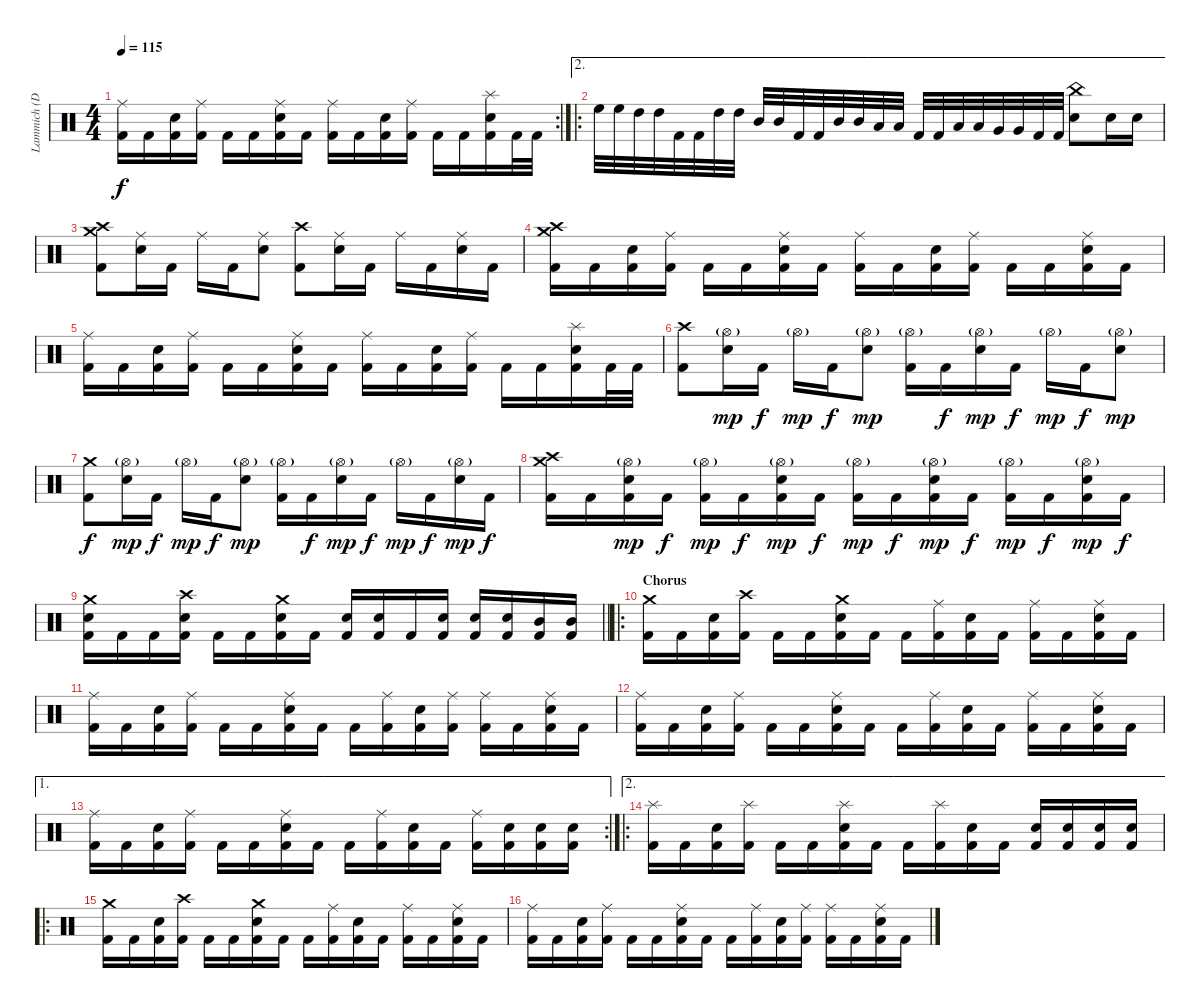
\track ("Lammich (Drums)" "Lammich (D") {instrument percussion}
\staff {score}
\articulation defaults
\rc 2
\ts (4 4)
\tempo 115
\clef neutral
\ks c
("Ride (middle)" "Kick (hit) 2").16{dy f} "Kick (hit) 2".16 ("Electric Snare (hit)" "Kick (hit) 2").16 ("Ride (middle)" "Kick (hit) 2").16 "Kick (hit) 2".16 "Kick (hit) 2".16 ("Ride (middle)" "Electric Snare (hit)" "Kick (hit) 2").16 "Kick (hit) 2".16 ("Ride (middle)" "Kick (hit) 2").16 "Kick (hit) 2".16 ("Electric Snare (hit)" "Kick (hit) 2").16 ("Ride (middle)" "Kick (hit) 2").16 "Kick (hit) 2".16 "Kick (hit) 2".16 ("Splash (hit)" "Electric Snare (hit)" "Kick (hit) 2").16 "Kick (hit) 2".32 "Kick (hit) 2".32 |
\ae 2
\ro "High Floor Tom (hit)".32 "High Floor Tom (hit)".32 "High Tom (hit)".32 "High Tom (hit)".32 "Kick (hit) 2".32 "Kick (hit) 2".32 "High Tom (hit)".32 "High Tom (hit)".32 "Mid Tom (hit)".32 "Mid Tom (hit)".32 "Kick (hit) 2".32 "Kick (hit) 2".32 "Mid Tom (hit)".32 "Mid Tom (hit)".32 "Low Tom (hit)".32 "Low Tom (hit)".32 "Kick (hit) 2".32 "Kick (hit) 2".32 "Low Tom (hit)".32 "Low Tom (hit)".32 "Very Low Tom (hit)".32 "Very Low Tom (hit)".32 "Kick (hit) 2".32 "Kick (hit) 2".32
("China (hit)" "Electric Snare (hit)").8 "Electric Snare (hit)".16 "Electric Snare (hit)".16 |
("Crash medium (hit)" "Crash high (hit)" "Kick (hit) 2").8 ("Ride (middle)" "Electric Snare (hit)").16 "Kick (hit) 2".16 "Ride (middle)".16 "Kick (hit) 2".16 ("Ride (middle)" "Electric Snare (hit)").8 ("Crash high (hit)" "Kick (hit) 2").8 ("Ride (middle)" "Electric Snare (hit)").16 "Kick (hit) 2".16 "Ride (middle)".16 "Kick (hit) 2".16 ("Ride (middle)" "Electric Snare (hit)").16 "Kick (hit) 2".16 |
("Crash medium (hit)" "Crash high (hit)" "Kick (hit) 2").16 "Kick (hit) 2".16 ("Electric Snare (hit)" "Kick (hit) 2").16 ("Ride (middle)" "Kick (hit) 2").16 "Kick (hit) 2".16 "Kick (hit) 2".16 ("Ride (middle)" "Electric Snare (hit)" "Kick (hit) 2").16 "Kick (hit) 2".16 ("Ride (middle)" "Kick (hit) 2").16 "Kick (hit) 2".16 ("Electric Snare (hit)" "Kick (hit) 2").16 ("Ride (middle)" "Kick (hit) 2").16 "Kick (hit) 2".16 "Kick (hit) 2".16 ("Ride (middle)" "Electric Snare (hit)" "Kick (hit) 2").16 "Kick (hit) 2".16 |
("Ride (middle)" "Kick (hit) 2").16 "Kick (hit) 2".16 ("Electric Snare (hit)" "Kick (hit) 2").16 ("Ride (middle)" "Kick (hit) 2").16 "Kick (hit) 2".16 "Kick (hit) 2".16 ("Ride (middle)" "Electric Snare (hit)" "Kick (hit) 2").16 "Kick (hit) 2".16 ("Ride (middle)" "Kick (hit) 2").16 "Kick (hit) 2".16 ("Electric Snare (hit)" "Kick (hit) 2").16 ("Ride (middle)" "Kick (hit) 2").16 "Kick (hit) 2".16 "Kick (hit) 2".16 ("Splash (hit)" "Electric Snare (hit)" "Kick (hit) 2").16 "Kick (hit) 2".32 "Kick (hit) 2".32 |
("Crash high (hit)" "Kick (hit) 2").8 ("Hi-Hat (open)"{g} "Electric Snare (hit)").16{dy mp} "Kick (hit) 2".16{dy f} "Hi-Hat (open)"{g}.16{dy mp} "Kick (hit) 2".16{dy f} ("Hi-Hat (open)"{g} "Electric Snare (hit)").8{dy mp} ("Hi-Hat (open)"{g} "Kick (hit) 2").16 "Kick (hit) 2".16{dy f} ("Hi-Hat (open)"{g} "Electric Snare (hit)").16{dy mp} "Kick (hit) 2".16{dy f} "Hi-Hat (open)"{g}.16{dy mp} "Kick (hit) 2".16{dy f} ("Hi-Hat (open)"{g} "Electric Snare (hit)").8{dy mp} |
("Crash medium (hit)" "Kick (hit) 2").8{dy f} ("Hi-Hat (open)"{g} "Electric Snare (hit)").16{dy mp} "Kick (hit) 2".16{dy f} "Hi-Hat (open)"{g}.16{dy mp} "Kick (hit) 2".16{dy f} ("Hi-Hat (open)"{g} "Electric Snare (hit)").8{dy mp} ("Hi-Hat (open)"{g} "Kick (hit) 2").16 "Kick (hit) 2".16{dy f} ("Hi-Hat (open)"{g} "Electric Snare (hit)").16{dy mp} "Kick (hit) 2".16{dy f} "Hi-Hat (open)"{g}.16{dy mp} "Kick (hit) 2".16{dy f} ("Hi-Hat (open)"{g} "Electric Snare (hit)").16{dy mp} "Kick (hit) 2".16{dy f} |
("Crash medium (hit)" "Crash high (hit)" "Kick (hit) 2").16 "Kick (hit) 2".16 ("Hi-Hat (open)"{g} "Electric Snare (hit)" "Kick (hit) 2").16{dy mp} "Kick (hit) 2".16{dy f} ("Hi-Hat (open)"{g} "Kick (hit) 2").16{dy mp} "Kick (hit) 2".16{dy f} ("Hi-Hat (open)"{g} "Electric Snare (hit)" "Kick (hit) 2").16{dy mp} "Kick (hit) 2".16{dy f} ("Hi-Hat (open)"{g} "Kick (hit) 2").16{dy mp} "Kick (hit) 2".16{dy f} ("Hi-Hat (open)"{g} "Electric Snare (hit)" "Kick (hit) 2").16{dy mp} "Kick (hit) 2".16{dy f} ("Hi-Hat (open)"{g} "Kick (hit) 2").16{dy mp} "Kick (hit) 2".16{dy f} ("Hi-Hat (open)"{g} "Electric Snare (hit)" "Kick (hit) 2").16{dy mp} "Kick (hit) 2".16{dy f} |
\barLineRight lightlight
("Crash medium (hit)" "Electric Snare (hit)" "Kick (hit) 2").16 "Kick (hit) 2".16 "Kick (hit) 2".16 ("Crash high (hit)" "Electric Snare (hit)" "Kick (hit) 2").16 "Kick (hit) 2".16 "Kick (hit) 2".16 ("Crash medium (hit)" "Electric Snare (hit)" "Kick (hit) 2").16 "Kick (hit) 2".16 ("Electric Snare (hit)" "Kick (hit) 2").16 ("Electric Snare (hit)" "Kick (hit) 2").16 "Kick (hit) 2".16 ("Electric Snare (hit)" "Kick (hit) 2").16 ("Electric Snare (hit)" "Kick (hit) 2").16 ("Electric Snare (hit)" "Kick (hit) 2").16 ("Mid Tom (hit)" "Kick (hit) 2").16 ("Mid Tom (hit)" "Kick (hit) 2").16 |
\ro
\section ("" "Chorus")
("Crash medium (hit)" "Kick (hit) 2").16 "Kick (hit) 2".16 ("Electric Snare (hit)" "Kick (hit) 2").16 ("Crash high (hit)" "Kick (hit) 2").16 "Kick (hit) 2".16 "Kick (hit) 2".16 ("Crash medium (hit)" "Electric Snare (hit)" "Kick (hit) 2").16 "Kick (hit) 2".16 "Kick (hit) 2".16 ("Ride (middle)" "Kick (hit) 2").16 ("Electric Snare (hit)" "Kick (hit) 2").16 "Kick (hit) 2".16 ("Ride (middle)" "Kick (hit) 2").16 "Kick (hit) 2".16 ("Ride (middle)" "Electric Snare (hit)" "Kick (hit) 2").16 "Kick (hit) 2".16 |
("Ride (middle)" "Kick (hit) 2").16 "Kick (hit) 2".16 ("Electric Snare (hit)" "Kick (hit) 2").16 ("Ride (middle)" "Kick (hit) 2").16 "Kick (hit) 2".16 "Kick (hit) 2".16 ("Ride (middle)" "Electric Snare (hit)" "Kick (hit) 2").16 "Kick (hit) 2".16 "Kick (hit) 2".16 ("Ride (middle)" "Kick (hit) 2").16 ("Electric Snare (hit)" "Kick (hit) 2").16 ("Ride (middle)" "Kick (hit) 2").16 ("Ride (middle)" "Kick (hit) 2").16 "Kick (hit) 2".16 ("Ride (middle)" "Electric Snare (hit)" "Kick (hit) 2").16 "Kick (hit) 2".16 |
("Ride (middle)" "Kick (hit) 2").16 "Kick (hit) 2".16 ("Electric Snare (hit)" "Kick (hit) 2").16 ("Ride (middle)" "Kick (hit) 2").16 "Kick (hit) 2".16 "Kick (hit) 2".16 ("Ride (middle)" "Electric Snare (hit)" "Kick (hit) 2").16 "Kick (hit) 2".16 "Kick (hit) 2".16 ("Ride (middle)" "Kick (hit) 2").16 ("Electric Snare (hit)" "Kick (hit) 2").16 "Kick (hit) 2".16 ("Ride (middle)" "Kick (hit) 2").16 "Kick (hit) 2".16 ("Ride (middle)" "Electric Snare (hit)" "Kick (hit) 2").16 "Kick (hit) 2".16 |
\ae 1
\rc 2
("Ride (middle)" "Kick (hit) 2").16 "Kick (hit) 2".16 ("Electric Snare (hit)" "Kick (hit) 2").16 ("Ride (middle)" "Kick (hit) 2").16 "Kick (hit) 2".16 "Kick (hit) 2".16 ("Ride (middle)" "Electric Snare (hit)" "Kick (hit) 2").16 "Kick (hit) 2".16 "Kick (hit) 2".16 ("Ride (middle)" "Kick (hit) 2").16 ("Electric Snare (hit)" "Kick (hit) 2").16 "Kick (hit) 2".16 ("Ride (middle)" "Kick (hit) 2").16 ("Electric Snare (hit)" "Kick (hit) 2").16 ("Electric Snare (hit)" "Kick (hit) 2").16 ("Electric Snare (hit)" "Kick (hit) 2").16 |
\ae 2
\ro
("Splash (hit)" "Kick (hit) 2").16 "Kick (hit) 2".16 ("Electric Snare (hit)" "Kick (hit) 2").16 ("Splash (hit)" "Kick (hit) 2").16 "Kick (hit) 2".16 "Kick (hit) 2".16 ("Splash (hit)" "Electric Snare (hit)" "Kick (hit) 2").16 "Kick (hit) 2".16 "Kick (hit) 2".16 ("Splash (hit)" "Kick (hit) 2").16 ("Electric Snare (hit)" "Kick (hit) 2").16 "Kick (hit) 2".16 ("Electric Snare (hit)" "Kick (hit) 2").16 ("Electric Snare (hit)" "Kick (hit) 2").16 ("Electric Snare (hit)" "Kick (hit) 2").16 ("Electric Snare (hit)" "Kick (hit) 2").16 |
\ro
("Crash medium (hit)" "Kick (hit) 2").16 "Kick (hit) 2".16 ("Electric Snare (hit)" "Kick (hit) 2").16 ("Crash high (hit)" "Kick (hit) 2").16 "Kick (hit) 2".16 "Kick (hit) 2".16 ("Crash medium (hit)" "Electric Snare (hit)" "Kick (hit) 2").16 "Kick (hit) 2".16 "Kick (hit) 2".16 ("Ride (middle)" "Kick (hit) 2").16 ("Electric Snare (hit)" "Kick (hit) 2").16 "Kick (hit) 2".16 ("Ride (middle)" "Kick (hit) 2").16 "Kick (hit) 2".16 ("Ride (middle)" "Electric Snare (hit)" "Kick (hit) 2").16 "Kick (hit) 2".16 |
("Ride (middle)" "Kick (hit) 2").16 "Kick (hit) 2".16 ("Electric Snare (hit)" "Kick (hit) 2").16 ("Ride (middle)" "Kick (hit) 2").16 "Kick (hit) 2".16 "Kick (hit) 2".16 ("Ride (middle)" "Electric Snare (hit)" "Kick (hit) 2").16 "Kick (hit) 2".16 "Kick (hit) 2".16 ("Ride (middle)" "Kick (hit) 2").16 ("Electric Snare (hit)" "Kick (hit) 2").16 ("Ride (middle)" "Kick (hit) 2").16 ("Ride (middle)" "Kick (hit) 2").16 "Kick (hit) 2".16 ("Ride (middle)" "Electric Snare (hit)" "Kick (hit) 2").16 "Kick (hit) 2".16
